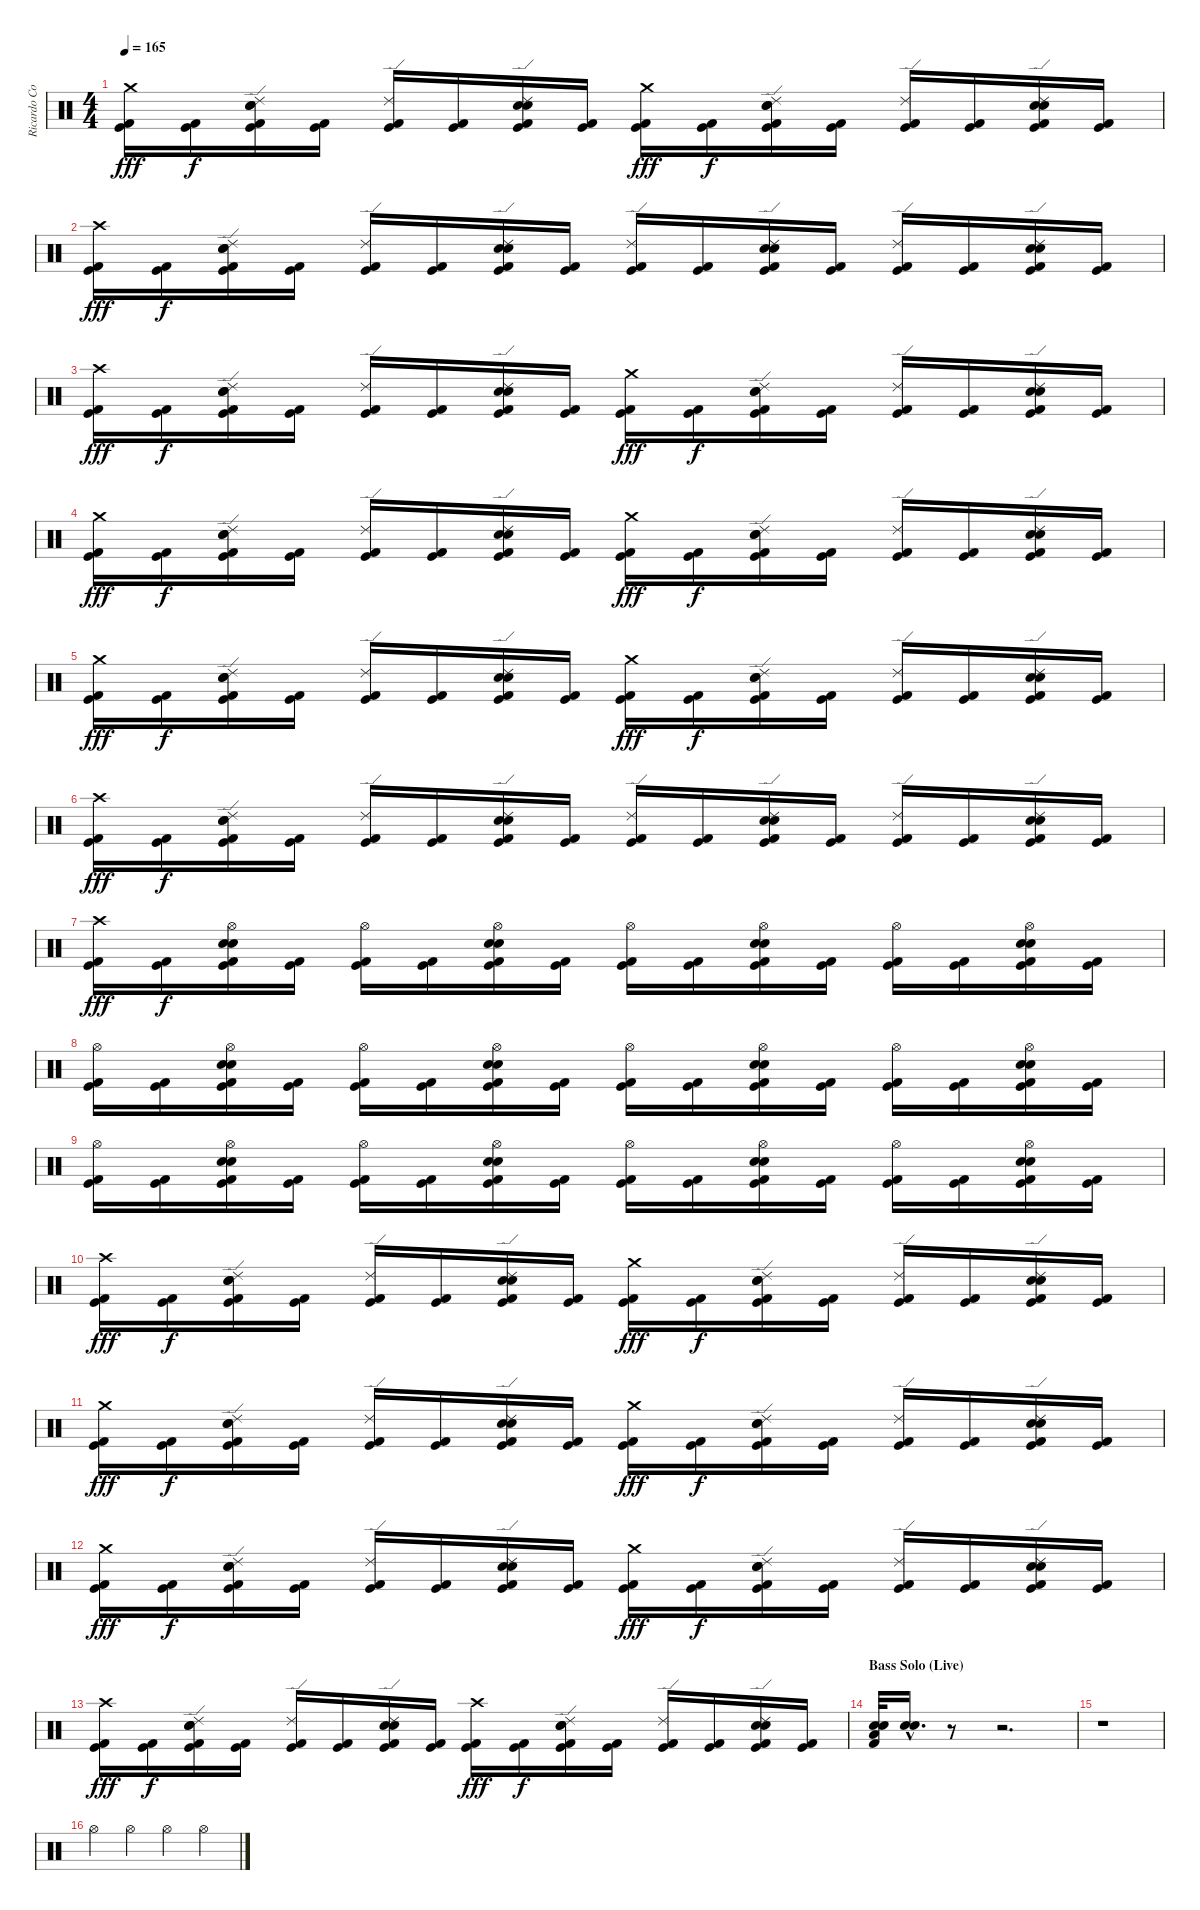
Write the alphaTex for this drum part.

\track ("Ricardo Confessori" "Ricardo Co") {instrument percussion}
\staff {score}
\articulation defaults
\ts (4 4)
\tempo 165
\clef neutral
\ks c
("Crash medium (hit)" "Kick (hit) 2" "Kick (hit)").16{dy fff} ("Kick (hit) 2" "Kick (hit)").16{dy f} ("Ride (edge) 2" "Electric Snare (hit)" "Snare (hit) 2" "Kick (hit) 2" "Kick (hit)").16 ("Kick (hit) 2" "Kick (hit)").16 ("Ride (edge) 2" "Kick (hit) 2" "Kick (hit)").16 ("Kick (hit) 2" "Kick (hit)").16 ("Ride (edge) 2" "Electric Snare (hit)" "Snare (hit) 2" "Kick (hit) 2" "Kick (hit)").16 ("Kick (hit) 2" "Kick (hit)").16 ("Crash medium (hit)" "Kick (hit) 2" "Kick (hit)").16{dy fff} ("Kick (hit) 2" "Kick (hit)").16{dy f} ("Ride (edge) 2" "Electric Snare (hit)" "Snare (hit) 2" "Kick (hit) 2" "Kick (hit)").16 ("Kick (hit) 2" "Kick (hit)").16 ("Ride (edge) 2" "Kick (hit) 2" "Kick (hit)").16 ("Kick (hit) 2" "Kick (hit)").16 ("Ride (edge) 2" "Electric Snare (hit)" "Snare (hit) 2" "Kick (hit) 2" "Kick (hit)").16 ("Kick (hit) 2" "Kick (hit)").16 |
("Crash high (hit)" "Kick (hit) 2" "Kick (hit)").16{dy fff} ("Kick (hit) 2" "Kick (hit)").16{dy f} ("Ride (edge) 2" "Electric Snare (hit)" "Snare (hit) 2" "Kick (hit) 2" "Kick (hit)").16 ("Kick (hit) 2" "Kick (hit)").16 ("Ride (edge) 2" "Kick (hit) 2" "Kick (hit)").16 ("Kick (hit) 2" "Kick (hit)").16 ("Ride (edge) 2" "Electric Snare (hit)" "Snare (hit) 2" "Kick (hit) 2" "Kick (hit)").16 ("Kick (hit) 2" "Kick (hit)").16 ("Ride (edge) 2" "Kick (hit) 2" "Kick (hit)").16 ("Kick (hit) 2" "Kick (hit)").16 ("Ride (edge) 2" "Electric Snare (hit)" "Snare (hit) 2" "Kick (hit) 2" "Kick (hit)").16 ("Kick (hit) 2" "Kick (hit)").16 ("Ride (edge) 2" "Kick (hit) 2" "Kick (hit)").16 ("Kick (hit) 2" "Kick (hit)").16 ("Ride (edge) 2" "Electric Snare (hit)" "Snare (hit) 2" "Kick (hit) 2" "Kick (hit)").16 ("Kick (hit) 2" "Kick (hit)").16 |
("Crash high (hit)" "Kick (hit) 2" "Kick (hit)").16{dy fff} ("Kick (hit) 2" "Kick (hit)").16{dy f} ("Ride (edge) 2" "Electric Snare (hit)" "Snare (hit) 2" "Kick (hit) 2" "Kick (hit)").16 ("Kick (hit) 2" "Kick (hit)").16 ("Ride (edge) 2" "Kick (hit) 2" "Kick (hit)").16 ("Kick (hit) 2" "Kick (hit)").16 ("Ride (edge) 2" "Electric Snare (hit)" "Snare (hit) 2" "Kick (hit) 2" "Kick (hit)").16 ("Kick (hit) 2" "Kick (hit)").16 ("Crash medium (hit)" "Kick (hit) 2" "Kick (hit)").16{dy fff} ("Kick (hit) 2" "Kick (hit)").16{dy f} ("Ride (edge) 2" "Electric Snare (hit)" "Snare (hit) 2" "Kick (hit) 2" "Kick (hit)").16 ("Kick (hit) 2" "Kick (hit)").16 ("Ride (edge) 2" "Kick (hit) 2" "Kick (hit)").16 ("Kick (hit) 2" "Kick (hit)").16 ("Ride (edge) 2" "Electric Snare (hit)" "Snare (hit) 2" "Kick (hit) 2" "Kick (hit)").16 ("Kick (hit) 2" "Kick (hit)").16 |
("Crash medium (hit)" "Kick (hit) 2" "Kick (hit)").16{dy fff} ("Kick (hit) 2" "Kick (hit)").16{dy f} ("Ride (edge) 2" "Electric Snare (hit)" "Snare (hit) 2" "Kick (hit) 2" "Kick (hit)").16 ("Kick (hit) 2" "Kick (hit)").16 ("Ride (edge) 2" "Kick (hit) 2" "Kick (hit)").16 ("Kick (hit) 2" "Kick (hit)").16 ("Ride (edge) 2" "Electric Snare (hit)" "Snare (hit) 2" "Kick (hit) 2" "Kick (hit)").16 ("Kick (hit) 2" "Kick (hit)").16 ("Crash medium (hit)" "Kick (hit) 2" "Kick (hit)").16{dy fff} ("Kick (hit) 2" "Kick (hit)").16{dy f} ("Ride (edge) 2" "Electric Snare (hit)" "Snare (hit) 2" "Kick (hit) 2" "Kick (hit)").16 ("Kick (hit) 2" "Kick (hit)").16 ("Ride (edge) 2" "Kick (hit) 2" "Kick (hit)").16 ("Kick (hit) 2" "Kick (hit)").16 ("Ride (edge) 2" "Electric Snare (hit)" "Snare (hit) 2" "Kick (hit) 2" "Kick (hit)").16 ("Kick (hit) 2" "Kick (hit)").16 |
("Crash medium (hit)" "Kick (hit) 2" "Kick (hit)").16{dy fff} ("Kick (hit) 2" "Kick (hit)").16{dy f} ("Ride (edge) 2" "Electric Snare (hit)" "Snare (hit) 2" "Kick (hit) 2" "Kick (hit)").16 ("Kick (hit) 2" "Kick (hit)").16 ("Ride (edge) 2" "Kick (hit) 2" "Kick (hit)").16 ("Kick (hit) 2" "Kick (hit)").16 ("Ride (edge) 2" "Electric Snare (hit)" "Snare (hit) 2" "Kick (hit) 2" "Kick (hit)").16 ("Kick (hit) 2" "Kick (hit)").16 ("Crash medium (hit)" "Kick (hit) 2" "Kick (hit)").16{dy fff} ("Kick (hit) 2" "Kick (hit)").16{dy f} ("Ride (edge) 2" "Electric Snare (hit)" "Snare (hit) 2" "Kick (hit) 2" "Kick (hit)").16 ("Kick (hit) 2" "Kick (hit)").16 ("Ride (edge) 2" "Kick (hit) 2" "Kick (hit)").16 ("Kick (hit) 2" "Kick (hit)").16 ("Ride (edge) 2" "Electric Snare (hit)" "Snare (hit) 2" "Kick (hit) 2" "Kick (hit)").16 ("Kick (hit) 2" "Kick (hit)").16 |
("Crash high (hit)" "Kick (hit) 2" "Kick (hit)").16{dy fff} ("Kick (hit) 2" "Kick (hit)").16{dy f} ("Ride (edge) 2" "Electric Snare (hit)" "Snare (hit) 2" "Kick (hit) 2" "Kick (hit)").16 ("Kick (hit) 2" "Kick (hit)").16 ("Ride (edge) 2" "Kick (hit) 2" "Kick (hit)").16 ("Kick (hit) 2" "Kick (hit)").16 ("Ride (edge) 2" "Electric Snare (hit)" "Snare (hit) 2" "Kick (hit) 2" "Kick (hit)").16 ("Kick (hit) 2" "Kick (hit)").16 ("Ride (edge) 2" "Kick (hit) 2" "Kick (hit)").16 ("Kick (hit) 2" "Kick (hit)").16 ("Ride (edge) 2" "Electric Snare (hit)" "Snare (hit) 2" "Kick (hit) 2" "Kick (hit)").16 ("Kick (hit) 2" "Kick (hit)").16 ("Ride (edge) 2" "Kick (hit) 2" "Kick (hit)").16 ("Kick (hit) 2" "Kick (hit)").16 ("Ride (edge) 2" "Electric Snare (hit)" "Snare (hit) 2" "Kick (hit) 2" "Kick (hit)").16 ("Kick (hit) 2" "Kick (hit)").16 |
("Crash high (hit)" "Kick (hit) 2" "Kick (hit)").16{dy fff} ("Kick (hit) 2" "Kick (hit)").16{dy f} ("Hi-Hat (open)" "Electric Snare (hit)" "Snare (hit) 2" "Kick (hit) 2" "Kick (hit)").16 ("Kick (hit) 2" "Kick (hit)").16 ("Hi-Hat (open)" "Kick (hit) 2" "Kick (hit)").16 ("Kick (hit) 2" "Kick (hit)").16 ("Hi-Hat (open)" "Electric Snare (hit)" "Snare (hit) 2" "Kick (hit) 2" "Kick (hit)").16 ("Kick (hit) 2" "Kick (hit)").16 ("Hi-Hat (open)" "Kick (hit) 2" "Kick (hit)").16 ("Kick (hit) 2" "Kick (hit)").16 ("Hi-Hat (open)" "Electric Snare (hit)" "Snare (hit) 2" "Kick (hit) 2" "Kick (hit)").16 ("Kick (hit) 2" "Kick (hit)").16 ("Hi-Hat (open)" "Kick (hit) 2" "Kick (hit)").16 ("Kick (hit) 2" "Kick (hit)").16 ("Hi-Hat (open)" "Electric Snare (hit)" "Snare (hit) 2" "Kick (hit) 2" "Kick (hit)").16 ("Kick (hit) 2" "Kick (hit)").16 |
("Hi-Hat (open)" "Kick (hit) 2" "Kick (hit)").16 ("Kick (hit) 2" "Kick (hit)").16 ("Hi-Hat (open)" "Electric Snare (hit)" "Snare (hit) 2" "Kick (hit) 2" "Kick (hit)").16 ("Kick (hit) 2" "Kick (hit)").16 ("Hi-Hat (open)" "Kick (hit) 2" "Kick (hit)").16 ("Kick (hit) 2" "Kick (hit)").16 ("Hi-Hat (open)" "Electric Snare (hit)" "Snare (hit) 2" "Kick (hit) 2" "Kick (hit)").16 ("Kick (hit) 2" "Kick (hit)").16 ("Hi-Hat (open)" "Kick (hit) 2" "Kick (hit)").16 ("Kick (hit) 2" "Kick (hit)").16 ("Hi-Hat (open)" "Electric Snare (hit)" "Snare (hit) 2" "Kick (hit) 2" "Kick (hit)").16 ("Kick (hit) 2" "Kick (hit)").16 ("Hi-Hat (open)" "Kick (hit) 2" "Kick (hit)").16 ("Kick (hit) 2" "Kick (hit)").16 ("Hi-Hat (open)" "Electric Snare (hit)" "Snare (hit) 2" "Kick (hit) 2" "Kick (hit)").16 ("Kick (hit) 2" "Kick (hit)").16 |
("Hi-Hat (open)" "Kick (hit) 2" "Kick (hit)").16 ("Kick (hit) 2" "Kick (hit)").16 ("Hi-Hat (open)" "Electric Snare (hit)" "Snare (hit) 2" "Kick (hit) 2" "Kick (hit)").16 ("Kick (hit) 2" "Kick (hit)").16 ("Hi-Hat (open)" "Kick (hit) 2" "Kick (hit)").16 ("Kick (hit) 2" "Kick (hit)").16 ("Hi-Hat (open)" "Electric Snare (hit)" "Snare (hit) 2" "Kick (hit) 2" "Kick (hit)").16 ("Kick (hit) 2" "Kick (hit)").16 ("Hi-Hat (open)" "Kick (hit) 2" "Kick (hit)").16 ("Kick (hit) 2" "Kick (hit)").16 ("Hi-Hat (open)" "Electric Snare (hit)" "Snare (hit) 2" "Kick (hit) 2" "Kick (hit)").16 ("Kick (hit) 2" "Kick (hit)").16 ("Hi-Hat (open)" "Kick (hit) 2" "Kick (hit)").16 ("Kick (hit) 2" "Kick (hit)").16 ("Hi-Hat (open)" "Electric Snare (hit)" "Snare (hit) 2" "Kick (hit) 2" "Kick (hit)").16 ("Kick (hit) 2" "Kick (hit)").16 |
("Crash high (hit)" "Kick (hit) 2" "Kick (hit)").16{dy fff} ("Kick (hit) 2" "Kick (hit)").16{dy f} ("Ride (edge) 2" "Electric Snare (hit)" "Snare (hit) 2" "Kick (hit) 2" "Kick (hit)").16 ("Kick (hit) 2" "Kick (hit)").16 ("Ride (edge) 2" "Kick (hit) 2" "Kick (hit)").16 ("Kick (hit) 2" "Kick (hit)").16 ("Ride (edge) 2" "Electric Snare (hit)" "Snare (hit) 2" "Kick (hit) 2" "Kick (hit)").16 ("Kick (hit) 2" "Kick (hit)").16 ("Crash medium (hit)" "Kick (hit) 2" "Kick (hit)").16{dy fff} ("Kick (hit) 2" "Kick (hit)").16{dy f} ("Ride (edge) 2" "Electric Snare (hit)" "Snare (hit) 2" "Kick (hit) 2" "Kick (hit)").16 ("Kick (hit) 2" "Kick (hit)").16 ("Ride (edge) 2" "Kick (hit) 2" "Kick (hit)").16 ("Kick (hit) 2" "Kick (hit)").16 ("Ride (edge) 2" "Electric Snare (hit)" "Snare (hit) 2" "Kick (hit) 2" "Kick (hit)").16 ("Kick (hit) 2" "Kick (hit)").16 |
("Crash medium (hit)" "Kick (hit) 2" "Kick (hit)").16{dy fff} ("Kick (hit) 2" "Kick (hit)").16{dy f} ("Ride (edge) 2" "Electric Snare (hit)" "Snare (hit) 2" "Kick (hit) 2" "Kick (hit)").16 ("Kick (hit) 2" "Kick (hit)").16 ("Ride (edge) 2" "Kick (hit) 2" "Kick (hit)").16 ("Kick (hit) 2" "Kick (hit)").16 ("Ride (edge) 2" "Electric Snare (hit)" "Snare (hit) 2" "Kick (hit) 2" "Kick (hit)").16 ("Kick (hit) 2" "Kick (hit)").16 ("Crash medium (hit)" "Kick (hit) 2" "Kick (hit)").16{dy fff} ("Kick (hit) 2" "Kick (hit)").16{dy f} ("Ride (edge) 2" "Electric Snare (hit)" "Snare (hit) 2" "Kick (hit) 2" "Kick (hit)").16 ("Kick (hit) 2" "Kick (hit)").16 ("Ride (edge) 2" "Kick (hit) 2" "Kick (hit)").16 ("Kick (hit) 2" "Kick (hit)").16 ("Ride (edge) 2" "Electric Snare (hit)" "Snare (hit) 2" "Kick (hit) 2" "Kick (hit)").16 ("Kick (hit) 2" "Kick (hit)").16 |
("Crash medium (hit)" "Kick (hit) 2" "Kick (hit)").16{dy fff} ("Kick (hit) 2" "Kick (hit)").16{dy f} ("Ride (edge) 2" "Electric Snare (hit)" "Snare (hit) 2" "Kick (hit) 2" "Kick (hit)").16 ("Kick (hit) 2" "Kick (hit)").16 ("Ride (edge) 2" "Kick (hit) 2" "Kick (hit)").16 ("Kick (hit) 2" "Kick (hit)").16 ("Ride (edge) 2" "Electric Snare (hit)" "Snare (hit) 2" "Kick (hit) 2" "Kick (hit)").16 ("Kick (hit) 2" "Kick (hit)").16 ("Crash medium (hit)" "Kick (hit) 2" "Kick (hit)").16{dy fff} ("Kick (hit) 2" "Kick (hit)").16{dy f} ("Ride (edge) 2" "Electric Snare (hit)" "Snare (hit) 2" "Kick (hit) 2" "Kick (hit)").16 ("Kick (hit) 2" "Kick (hit)").16 ("Ride (edge) 2" "Kick (hit) 2" "Kick (hit)").16 ("Kick (hit) 2" "Kick (hit)").16 ("Ride (edge) 2" "Electric Snare (hit)" "Snare (hit) 2" "Kick (hit) 2" "Kick (hit)").16 ("Kick (hit) 2" "Kick (hit)").16 |
("Crash high (hit)" "Kick (hit) 2" "Kick (hit)").16{dy fff} ("Kick (hit) 2" "Kick (hit)").16{dy f} ("Ride (edge) 2" "Electric Snare (hit)" "Snare (hit) 2" "Kick (hit) 2" "Kick (hit)").16 ("Kick (hit) 2" "Kick (hit)").16 ("Ride (edge) 2" "Kick (hit) 2" "Kick (hit)").16 ("Kick (hit) 2" "Kick (hit)").16 ("Ride (edge) 2" "Electric Snare (hit)" "Snare (hit) 2" "Kick (hit) 2" "Kick (hit)").16 ("Kick (hit) 2" "Kick (hit)").16 ("Crash high (hit)" "Kick (hit) 2" "Kick (hit)").16{dy fff} ("Kick (hit) 2" "Kick (hit)").16{dy f} ("Ride (edge) 2" "Electric Snare (hit)" "Snare (hit) 2" "Kick (hit) 2" "Kick (hit)").16 ("Kick (hit) 2" "Kick (hit)").16 ("Ride (edge) 2" "Kick (hit) 2" "Kick (hit)").16 ("Kick (hit) 2" "Kick (hit)").16 ("Ride (edge) 2" "Electric Snare (hit)" "Snare (hit) 2" "Kick (hit) 2" "Kick (hit)").16 ("Kick (hit) 2" "Kick (hit)").16 |
\section ("" "Bass Solo (Live)")
("Electric Snare (hit)" "Snare (hit) 2" "Kick (hit) 2" "Low Tom (hit)").32 ("Electric Snare (hit)"{hac} "Snare (hit) 2"{hac}).16{d} r.8 r.2{d} |
r.1 |
"Hi-Hat (open)".4 "Hi-Hat (open)".4 "Hi-Hat (open)".4 "Hi-Hat (open)".4
